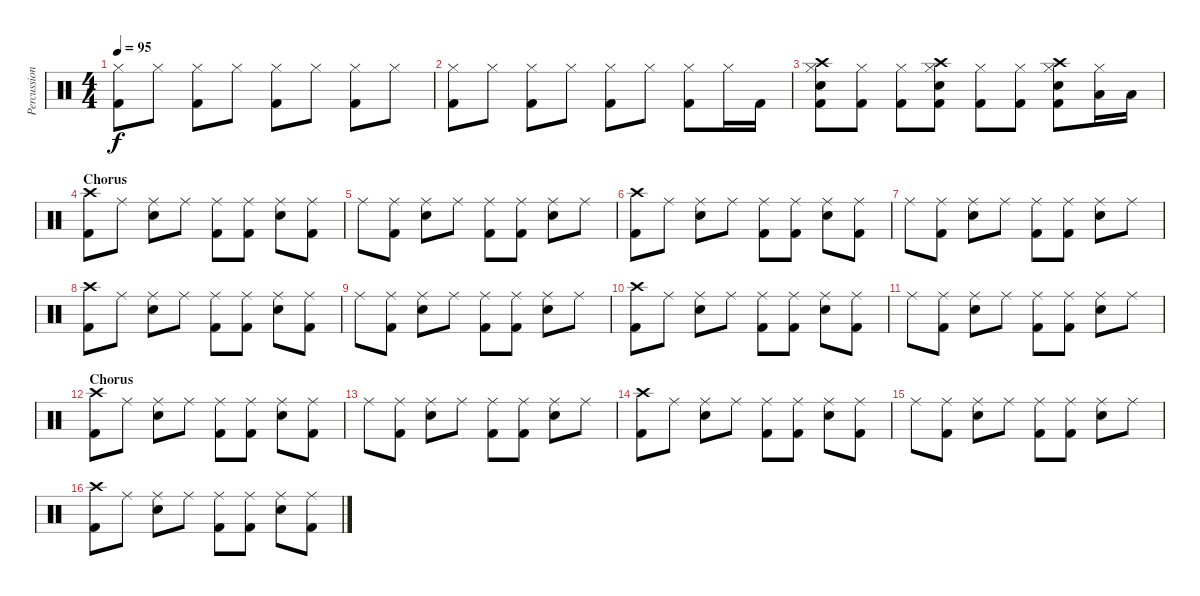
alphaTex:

\track ("Percussion" "Percussion") {instrument percussion}
\staff {score}
\articulation defaults
\ts (4 4)
\tempo 95
\clef neutral
\ks c
("Hi-Hat (closed)" "Kick (hit) 2").8{dy f volume 13} "Hi-Hat (closed)".8 ("Hi-Hat (closed)" "Kick (hit) 2").8 "Hi-Hat (closed)".8 ("Hi-Hat (closed)" "Kick (hit) 2").8 "Hi-Hat (closed)".8 ("Hi-Hat (closed)" "Kick (hit) 2").8 "Hi-Hat (closed)".8 |
("Hi-Hat (closed)" "Kick (hit) 2").8{volume 13} "Hi-Hat (closed)".8 ("Hi-Hat (closed)" "Kick (hit) 2").8 "Hi-Hat (closed)".8 ("Hi-Hat (closed)" "Kick (hit) 2").8 "Hi-Hat (closed)".8 ("Hi-Hat (closed)" "Kick (hit) 2").8 "Hi-Hat (closed)".16 "Kick (hit) 2".16 |
("Crash high (hit)" "Hi-Hat (closed)" "Electric Snare (hit)" "Kick (hit) 2").8{volume 13} ("Hi-Hat (closed)" "Kick (hit) 2").8 ("Hi-Hat (closed)" "Kick (hit) 2").8 ("Crash high (hit)" "Hi-Hat (closed)" "Electric Snare (hit)" "Kick (hit) 2").8 ("Hi-Hat (closed)" "Kick (hit) 2").8 ("Hi-Hat (closed)" "Kick (hit) 2").8 ("Crash high (hit)" "Hi-Hat (closed)" "Electric Snare (hit)" "Kick (hit) 2").8 ("Hi-Hat (closed)" "Low Floor Tom (hit)").16 "Low Floor Tom (hit)".16 |
\section ("" "Chorus")
("Crash high (hit)" "Kick (hit) 2").8{volume 13} "Ride (middle)".8 ("Ride (middle)" "Electric Snare (hit)").8 "Ride (middle)".8 ("Ride (middle)" "Kick (hit) 2").8 ("Ride (middle)" "Kick (hit) 2").8 ("Ride (middle)" "Electric Snare (hit)").8 ("Ride (middle)" "Kick (hit) 2").8 |
"Ride (middle)".8 ("Ride (middle)" "Kick (hit) 2").8 ("Ride (middle)" "Electric Snare (hit)").8 "Ride (middle)".8 ("Ride (middle)" "Kick (hit) 2").8 ("Ride (middle)" "Kick (hit) 2").8 ("Ride (middle)" "Electric Snare (hit)").8 "Ride (middle)".8 |
("Crash high (hit)" "Kick (hit) 2").8{volume 13} "Ride (middle)".8 ("Ride (middle)" "Electric Snare (hit)").8 "Ride (middle)".8 ("Ride (middle)" "Kick (hit) 2").8 ("Ride (middle)" "Kick (hit) 2").8 ("Ride (middle)" "Electric Snare (hit)").8 ("Ride (middle)" "Kick (hit) 2").8 |
"Ride (middle)".8 ("Ride (middle)" "Kick (hit) 2").8 ("Ride (middle)" "Electric Snare (hit)").8 "Ride (middle)".8 ("Ride (middle)" "Kick (hit) 2").8 ("Ride (middle)" "Kick (hit) 2").8 ("Ride (middle)" "Electric Snare (hit)").8 "Ride (middle)".8 |
("Crash high (hit)" "Kick (hit) 2").8{volume 13} "Ride (middle)".8 ("Ride (middle)" "Electric Snare (hit)").8 "Ride (middle)".8 ("Ride (middle)" "Kick (hit) 2").8 ("Ride (middle)" "Kick (hit) 2").8 ("Ride (middle)" "Electric Snare (hit)").8 ("Ride (middle)" "Kick (hit) 2").8 |
"Ride (middle)".8 ("Ride (middle)" "Kick (hit) 2").8 ("Ride (middle)" "Electric Snare (hit)").8 "Ride (middle)".8 ("Ride (middle)" "Kick (hit) 2").8 ("Ride (middle)" "Kick (hit) 2").8 ("Ride (middle)" "Electric Snare (hit)").8 "Ride (middle)".8 |
("Crash high (hit)" "Kick (hit) 2").8{volume 13} "Ride (middle)".8 ("Ride (middle)" "Electric Snare (hit)").8 "Ride (middle)".8 ("Ride (middle)" "Kick (hit) 2").8 ("Ride (middle)" "Kick (hit) 2").8 ("Ride (middle)" "Electric Snare (hit)").8 ("Ride (middle)" "Kick (hit) 2").8 |
"Ride (middle)".8 ("Ride (middle)" "Kick (hit) 2").8 ("Ride (middle)" "Electric Snare (hit)").8 "Ride (middle)".8 ("Ride (middle)" "Kick (hit) 2").8 ("Ride (middle)" "Kick (hit) 2").8 ("Ride (middle)" "Electric Snare (hit)").8 "Ride (middle)".8 |
\section ("" "Chorus")
("Crash high (hit)" "Kick (hit) 2").8{volume 13} "Ride (middle)".8 ("Ride (middle)" "Electric Snare (hit)").8 "Ride (middle)".8 ("Ride (middle)" "Kick (hit) 2").8 ("Ride (middle)" "Kick (hit) 2").8 ("Ride (middle)" "Electric Snare (hit)").8 ("Ride (middle)" "Kick (hit) 2").8 |
"Ride (middle)".8 ("Ride (middle)" "Kick (hit) 2").8 ("Ride (middle)" "Electric Snare (hit)").8 "Ride (middle)".8 ("Ride (middle)" "Kick (hit) 2").8 ("Ride (middle)" "Kick (hit) 2").8 ("Ride (middle)" "Electric Snare (hit)").8 "Ride (middle)".8 |
("Crash high (hit)" "Kick (hit) 2").8{volume 13} "Ride (middle)".8 ("Ride (middle)" "Electric Snare (hit)").8 "Ride (middle)".8 ("Ride (middle)" "Kick (hit) 2").8 ("Ride (middle)" "Kick (hit) 2").8 ("Ride (middle)" "Electric Snare (hit)").8 ("Ride (middle)" "Kick (hit) 2").8 |
"Ride (middle)".8 ("Ride (middle)" "Kick (hit) 2").8 ("Ride (middle)" "Electric Snare (hit)").8 "Ride (middle)".8 ("Ride (middle)" "Kick (hit) 2").8 ("Ride (middle)" "Kick (hit) 2").8 ("Ride (middle)" "Electric Snare (hit)").8 "Ride (middle)".8 |
("Crash high (hit)" "Kick (hit) 2").8{volume 13} "Ride (middle)".8 ("Ride (middle)" "Electric Snare (hit)").8 "Ride (middle)".8 ("Ride (middle)" "Kick (hit) 2").8 ("Ride (middle)" "Kick (hit) 2").8 ("Ride (middle)" "Electric Snare (hit)").8 ("Ride (middle)" "Kick (hit) 2").8
